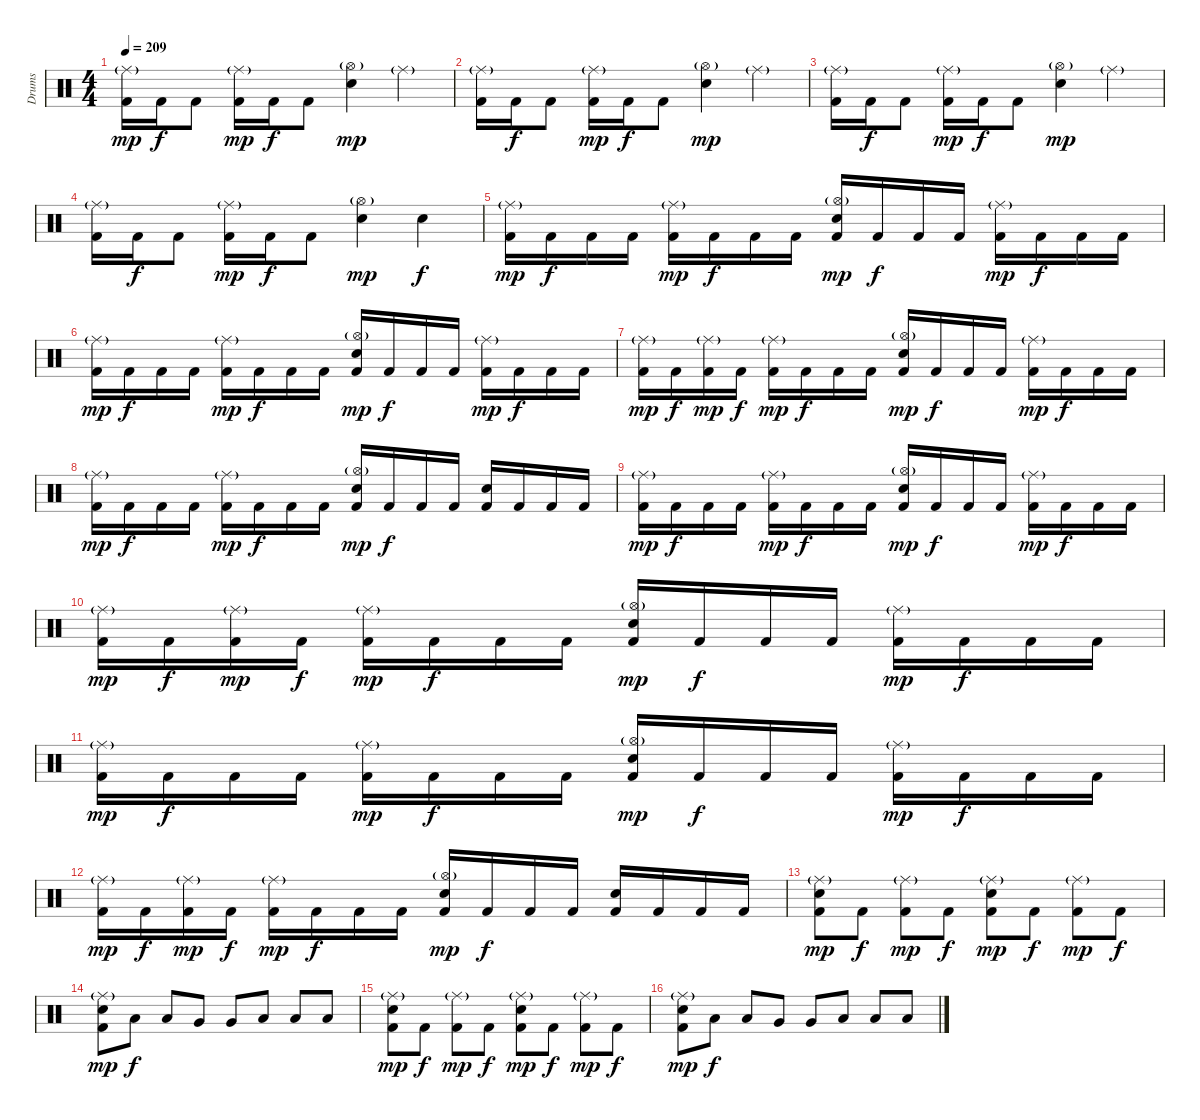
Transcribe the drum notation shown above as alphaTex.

\track ("Drums" "Drums") {instrument percussion}
\staff {score}
\articulation defaults
\ts (4 4)
\tempo 209
\clef neutral
\ks c
("Ride (middle)"{g} "Kick (hit) 2").16{dy mp} "Kick (hit) 2".16{dy f} "Kick (hit) 2".8 ("Ride (middle)"{g} "Kick (hit) 2").16{dy mp} "Kick (hit) 2".16{dy f} "Kick (hit) 2".8 ("Hi-Hat (open)"{g} "Snare (hit) 2").4{dy mp} "Ride (middle)"{g}.4 |
("Ride (middle)"{g} "Kick (hit) 2").16 "Kick (hit) 2".16{dy f} "Kick (hit) 2".8 ("Ride (middle)"{g} "Kick (hit) 2").16{dy mp} "Kick (hit) 2".16{dy f} "Kick (hit) 2".8 ("Hi-Hat (open)"{g} "Snare (hit) 2").4{dy mp} "Ride (middle)"{g}.4 |
("Ride (middle)"{g} "Kick (hit) 2").16 "Kick (hit) 2".16{dy f} "Kick (hit) 2".8 ("Ride (middle)"{g} "Kick (hit) 2").16{dy mp} "Kick (hit) 2".16{dy f} "Kick (hit) 2".8 ("Hi-Hat (open)"{g} "Snare (hit) 2").4{dy mp} "Ride (middle)"{g}.4 |
("Ride (middle)"{g} "Kick (hit) 2").16 "Kick (hit) 2".16{dy f} "Kick (hit) 2".8 ("Ride (middle)"{g} "Kick (hit) 2").16{dy mp} "Kick (hit) 2".16{dy f} "Kick (hit) 2".8 ("Hi-Hat (open)"{g} "Snare (hit) 2").4{dy mp} "Snare (hit) 2".4{dy f} |
("Ride (middle)"{g} "Kick (hit) 2").16{dy mp} "Kick (hit) 2".16{dy f} "Kick (hit) 2".16 "Kick (hit) 2".16 ("Ride (middle)"{g} "Kick (hit) 2").16{dy mp} "Kick (hit) 2".16{dy f} "Kick (hit) 2".16 "Kick (hit) 2".16 ("Hi-Hat (open)"{g} "Snare (hit) 2" "Kick (hit) 2").16{dy mp} "Kick (hit) 2".16{dy f} "Kick (hit) 2".16 "Kick (hit) 2".16 ("Ride (middle)"{g} "Kick (hit) 2").16{dy mp} "Kick (hit) 2".16{dy f} "Kick (hit) 2".16 "Kick (hit) 2".16 |
("Ride (middle)"{g} "Kick (hit) 2").16{dy mp} "Kick (hit) 2".16{dy f} "Kick (hit) 2".16 "Kick (hit) 2".16 ("Ride (middle)"{g} "Kick (hit) 2").16{dy mp} "Kick (hit) 2".16{dy f} "Kick (hit) 2".16 "Kick (hit) 2".16 ("Hi-Hat (open)"{g} "Snare (hit) 2" "Kick (hit) 2").16{dy mp} "Kick (hit) 2".16{dy f} "Kick (hit) 2".16 "Kick (hit) 2".16 ("Ride (middle)"{g} "Kick (hit) 2").16{dy mp} "Kick (hit) 2".16{dy f} "Kick (hit) 2".16 "Kick (hit) 2".16 |
("Ride (middle)"{g} "Kick (hit) 2").16{dy mp} "Kick (hit) 2".16{dy f} ("Ride (middle)"{g} "Kick (hit) 2").16{dy mp} "Kick (hit) 2".16{dy f} ("Ride (middle)"{g} "Kick (hit) 2").16{dy mp} "Kick (hit) 2".16{dy f} "Kick (hit) 2".16 "Kick (hit) 2".16 ("Hi-Hat (open)"{g} "Snare (hit) 2" "Kick (hit) 2").16{dy mp} "Kick (hit) 2".16{dy f} "Kick (hit) 2".16 "Kick (hit) 2".16 ("Ride (middle)"{g} "Kick (hit) 2").16{dy mp} "Kick (hit) 2".16{dy f} "Kick (hit) 2".16 "Kick (hit) 2".16 |
("Ride (middle)"{g} "Kick (hit) 2").16{dy mp} "Kick (hit) 2".16{dy f} "Kick (hit) 2".16 "Kick (hit) 2".16 ("Ride (middle)"{g} "Kick (hit) 2").16{dy mp} "Kick (hit) 2".16{dy f} "Kick (hit) 2".16 "Kick (hit) 2".16 ("Hi-Hat (open)"{g} "Snare (hit) 2" "Kick (hit) 2").16{dy mp} "Kick (hit) 2".16{dy f} "Kick (hit) 2".16 "Kick (hit) 2".16 ("Snare (hit) 2" "Kick (hit) 2").16 "Kick (hit) 2".16 "Kick (hit) 2".16 "Kick (hit) 2".16 |
("Ride (middle)"{g} "Kick (hit) 2").16{dy mp} "Kick (hit) 2".16{dy f} "Kick (hit) 2".16 "Kick (hit) 2".16 ("Ride (middle)"{g} "Kick (hit) 2").16{dy mp} "Kick (hit) 2".16{dy f} "Kick (hit) 2".16 "Kick (hit) 2".16 ("Hi-Hat (open)"{g} "Snare (hit) 2" "Kick (hit) 2").16{dy mp} "Kick (hit) 2".16{dy f} "Kick (hit) 2".16 "Kick (hit) 2".16 ("Ride (middle)"{g} "Kick (hit) 2").16{dy mp} "Kick (hit) 2".16{dy f} "Kick (hit) 2".16 "Kick (hit) 2".16 |
("Ride (middle)"{g} "Kick (hit) 2").16{dy mp} "Kick (hit) 2".16{dy f} ("Ride (middle)"{g} "Kick (hit) 2").16{dy mp} "Kick (hit) 2".16{dy f} ("Ride (middle)"{g} "Kick (hit) 2").16{dy mp} "Kick (hit) 2".16{dy f} "Kick (hit) 2".16 "Kick (hit) 2".16 ("Hi-Hat (open)"{g} "Snare (hit) 2" "Kick (hit) 2").16{dy mp} "Kick (hit) 2".16{dy f} "Kick (hit) 2".16 "Kick (hit) 2".16 ("Ride (middle)"{g} "Kick (hit) 2").16{dy mp} "Kick (hit) 2".16{dy f} "Kick (hit) 2".16 "Kick (hit) 2".16 |
("Ride (middle)"{g} "Kick (hit) 2").16{dy mp} "Kick (hit) 2".16{dy f} "Kick (hit) 2".16 "Kick (hit) 2".16 ("Ride (middle)"{g} "Kick (hit) 2").16{dy mp} "Kick (hit) 2".16{dy f} "Kick (hit) 2".16 "Kick (hit) 2".16 ("Hi-Hat (open)"{g} "Snare (hit) 2" "Kick (hit) 2").16{dy mp} "Kick (hit) 2".16{dy f} "Kick (hit) 2".16 "Kick (hit) 2".16 ("Ride (middle)"{g} "Kick (hit) 2").16{dy mp} "Kick (hit) 2".16{dy f} "Kick (hit) 2".16 "Kick (hit) 2".16 |
("Ride (middle)"{g} "Kick (hit) 2").16{dy mp} "Kick (hit) 2".16{dy f} ("Ride (middle)"{g} "Kick (hit) 2").16{dy mp} "Kick (hit) 2".16{dy f} ("Ride (middle)"{g} "Kick (hit) 2").16{dy mp} "Kick (hit) 2".16{dy f} "Kick (hit) 2".16 "Kick (hit) 2".16 ("Hi-Hat (open)"{g} "Snare (hit) 2" "Kick (hit) 2").16{dy mp} "Kick (hit) 2".16{dy f} "Kick (hit) 2".16 "Kick (hit) 2".16 ("Snare (hit) 2" "Kick (hit) 2").16 "Kick (hit) 2".16 "Kick (hit) 2".16 "Kick (hit) 2".16 |
("Ride (middle)"{g} "Snare (hit) 2" "Kick (hit) 2").8{dy mp} "Kick (hit) 2".8{dy f} ("Ride (middle)"{g} "Kick (hit) 2").8{dy mp} "Kick (hit) 2".8{dy f} ("Ride (middle)"{g} "Snare (hit) 2" "Kick (hit) 2").8{dy mp} "Kick (hit) 2".8{dy f} ("Ride (middle)"{g} "Kick (hit) 2").8{dy mp} "Kick (hit) 2".8{dy f} |
("Ride (middle)"{g} "Snare (hit) 2" "Kick (hit) 2").8{dy mp} "Low Tom (hit)".8{dy f} "Low Tom (hit)".8 "Very Low Tom (hit)".8 "Very Low Tom (hit)".8 "Low Floor Tom (hit)".8 "Low Floor Tom (hit)".8 "Low Floor Tom (hit)".8 |
("Ride (middle)"{g} "Snare (hit) 2" "Kick (hit) 2").8{dy mp} "Kick (hit) 2".8{dy f} ("Ride (middle)"{g} "Kick (hit) 2").8{dy mp} "Kick (hit) 2".8{dy f} ("Ride (middle)"{g} "Snare (hit) 2" "Kick (hit) 2").8{dy mp} "Kick (hit) 2".8{dy f} ("Ride (middle)"{g} "Kick (hit) 2").8{dy mp} "Kick (hit) 2".8{dy f} |
("Ride (middle)"{g} "Snare (hit) 2" "Kick (hit) 2").8{dy mp} "Low Tom (hit)".8{dy f} "Low Tom (hit)".8 "Very Low Tom (hit)".8 "Very Low Tom (hit)".8 "Low Floor Tom (hit)".8 "Low Floor Tom (hit)".8 "Low Floor Tom (hit)".8
